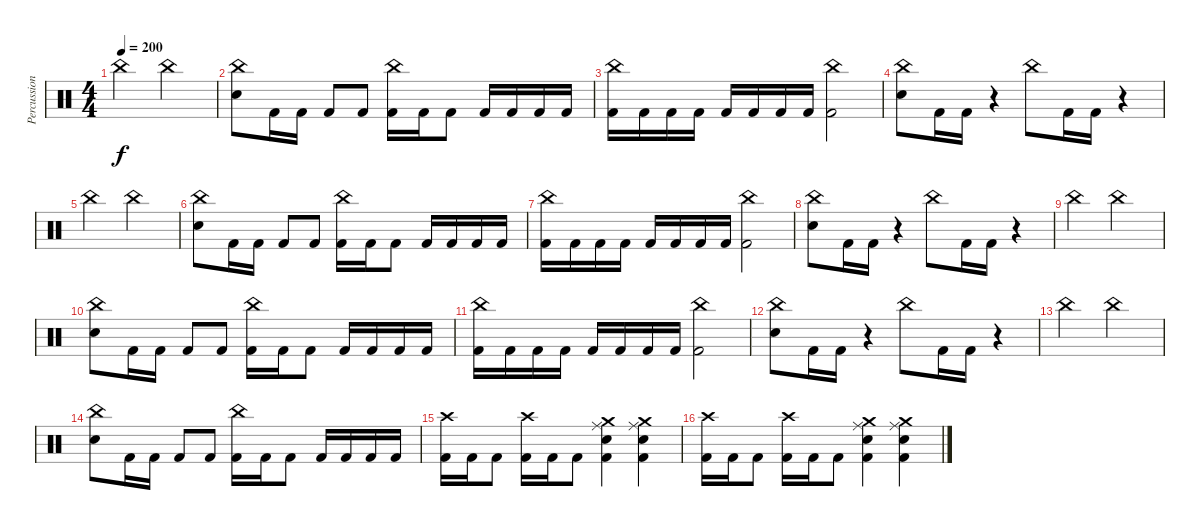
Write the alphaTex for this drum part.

\track ("Percussions" "Percussion") {instrument percussion}
\staff {score}
\articulation defaults
\ts (4 4)
\tempo 200
\clef neutral
\ks c "China (hit)".2{dy f} "China (hit)".2
|
("China (hit)" "Electric Snare (hit)").8 "Kick (hit) 2".16 "Kick (hit) 2".16 "Kick (hit) 2".8 "Kick (hit) 2".8 ("China (hit)" "Kick (hit) 2").16 "Kick (hit) 2".16 "Kick (hit) 2".8 "Kick (hit) 2".16 "Kick (hit) 2".16 "Kick (hit) 2".16 "Kick (hit) 2".16 |
("China (hit)" "Kick (hit) 2").16 "Kick (hit) 2".16 "Kick (hit) 2".16 "Kick (hit) 2".16 "Kick (hit) 2".16 "Kick (hit) 2".16 "Kick (hit) 2".16 "Kick (hit) 2".16 ("China (hit)" "Kick (hit) 2").2 |
("China (hit)" "Electric Snare (hit)").8 "Kick (hit) 2".16 "Kick (hit) 2".16 r.4 "China (hit)".8 "Kick (hit) 2".16 "Kick (hit) 2".16 r.4 |
"China (hit)".2 "China (hit)".2 |
("China (hit)" "Electric Snare (hit)").8 "Kick (hit) 2".16 "Kick (hit) 2".16 "Kick (hit) 2".8 "Kick (hit) 2".8 ("China (hit)" "Kick (hit) 2").16 "Kick (hit) 2".16 "Kick (hit) 2".8 "Kick (hit) 2".16 "Kick (hit) 2".16 "Kick (hit) 2".16 "Kick (hit) 2".16 |
("China (hit)" "Kick (hit) 2").16 "Kick (hit) 2".16 "Kick (hit) 2".16 "Kick (hit) 2".16 "Kick (hit) 2".16 "Kick (hit) 2".16 "Kick (hit) 2".16 "Kick (hit) 2".16 ("China (hit)" "Kick (hit) 2").2 |
("China (hit)" "Electric Snare (hit)").8 "Kick (hit) 2".16 "Kick (hit) 2".16 r.4 "China (hit)".8 "Kick (hit) 2".16 "Kick (hit) 2".16 r.4 |
"China (hit)".2 "China (hit)".2 |
("China (hit)" "Electric Snare (hit)").8 "Kick (hit) 2".16 "Kick (hit) 2".16 "Kick (hit) 2".8 "Kick (hit) 2".8 ("China (hit)" "Kick (hit) 2").16 "Kick (hit) 2".16 "Kick (hit) 2".8 "Kick (hit) 2".16 "Kick (hit) 2".16 "Kick (hit) 2".16 "Kick (hit) 2".16 |
("China (hit)" "Kick (hit) 2").16 "Kick (hit) 2".16 "Kick (hit) 2".16 "Kick (hit) 2".16 "Kick (hit) 2".16 "Kick (hit) 2".16 "Kick (hit) 2".16 "Kick (hit) 2".16 ("China (hit)" "Kick (hit) 2").2 |
("China (hit)" "Electric Snare (hit)").8 "Kick (hit) 2".16 "Kick (hit) 2".16 r.4 "China (hit)".8 "Kick (hit) 2".16 "Kick (hit) 2".16 r.4 |
"China (hit)".2 "China (hit)".2 |
("China (hit)" "Electric Snare (hit)").8 "Kick (hit) 2".16 "Kick (hit) 2".16 "Kick (hit) 2".8 "Kick (hit) 2".8 ("China (hit)" "Kick (hit) 2").16 "Kick (hit) 2".16 "Kick (hit) 2".8 "Kick (hit) 2".16 "Kick (hit) 2".16 "Kick (hit) 2".16 "Kick (hit) 2".16 |
("Crash high (hit)" "Kick (hit) 2").16 "Kick (hit) 2".16 "Kick (hit) 2".8 ("Crash high (hit)" "Kick (hit) 2").16 "Kick (hit) 2".16 "Kick (hit) 2".8 ("Crash medium (hit)" "Ride (middle)" "Electric Snare (hit)" "Kick (hit) 2").4 ("Crash medium (hit)" "Ride (middle)" "Electric Snare (hit)" "Kick (hit) 2").4 |
("Crash high (hit)" "Kick (hit) 2").16 "Kick (hit) 2".16 "Kick (hit) 2".8 ("Crash high (hit)" "Kick (hit) 2").16 "Kick (hit) 2".16 "Kick (hit) 2".8 ("Crash medium (hit)" "Ride (middle)" "Electric Snare (hit)" "Kick (hit) 2").4 ("Crash medium (hit)" "Ride (middle)" "Electric Snare (hit)" "Kick (hit) 2").4
